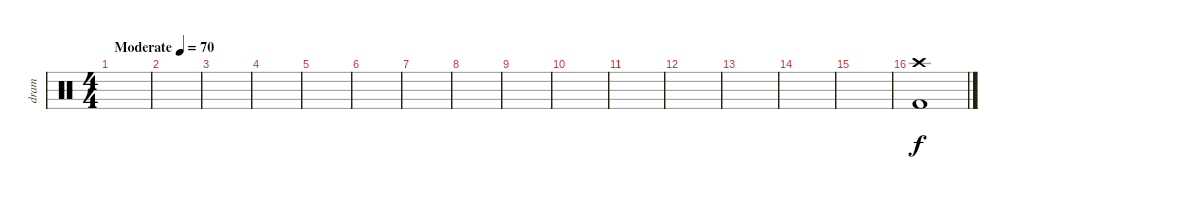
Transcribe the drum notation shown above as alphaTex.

\track ("dram" "dram") {instrument percussion}
\staff {score}
\articulation defaults
\ts (4 4)
\tempo (70 "Moderate")
\clef neutral
\ks c
|
|
|
|
|
|
|
|
|
|
|
|
|
|
|
("Crash high (hit)" "Kick (hit) 2").1
